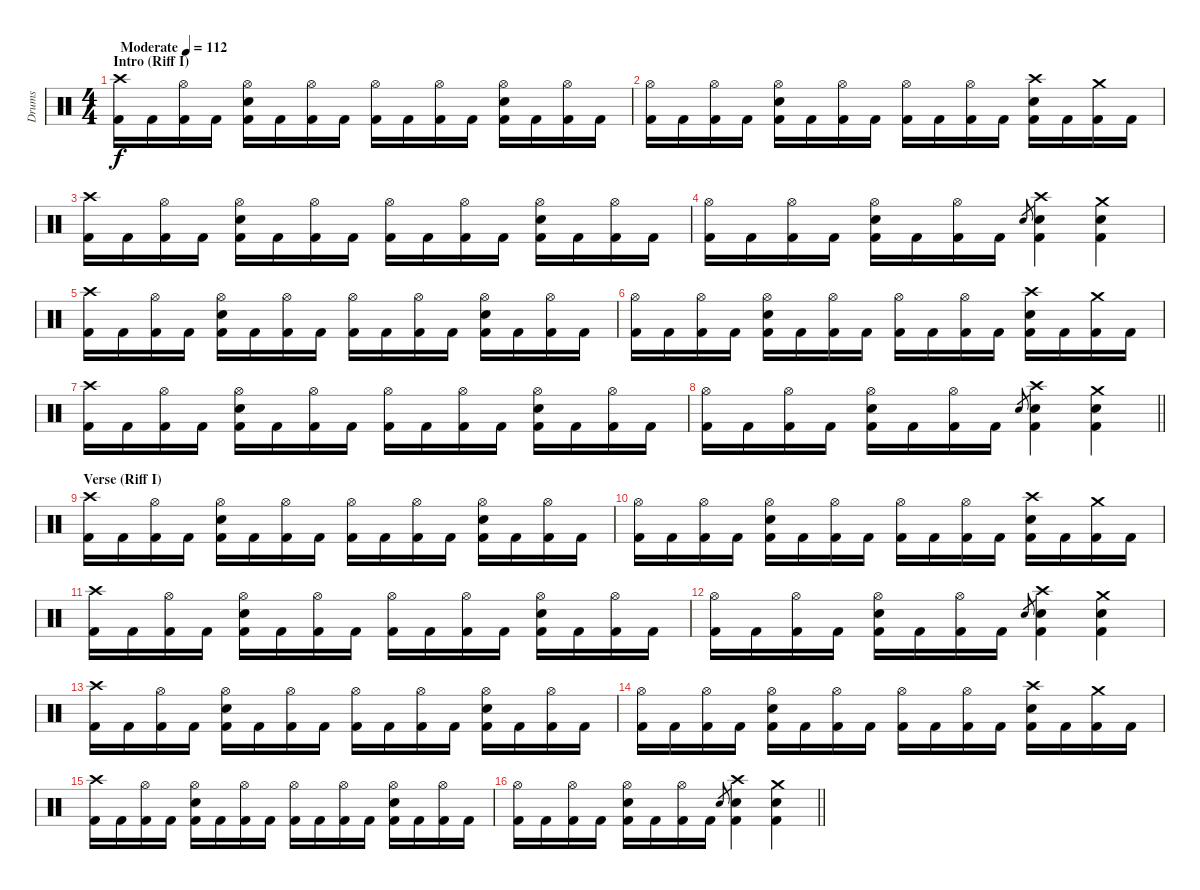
\track ("Drums" "Drums") {instrument percussion}
\staff {score}
\articulation defaults
\ts (4 4)
\section ("" "Intro (Riff I)")
\tempo (112 "Moderate")
\clef neutral
\ks c
("Crash high (hit)" "Kick (hit) 2").16{dy f} "Kick (hit) 2".16 ("Hi-Hat (open)" "Kick (hit) 2").16 "Kick (hit) 2".16 ("Hi-Hat (open)" "Electric Snare (hit)" "Kick (hit) 2").16 "Kick (hit) 2".16 ("Hi-Hat (open)" "Kick (hit) 2").16 "Kick (hit) 2".16 ("Hi-Hat (open)" "Kick (hit) 2").16 "Kick (hit) 2".16 ("Hi-Hat (open)" "Kick (hit) 2").16 "Kick (hit) 2".16 ("Hi-Hat (open)" "Electric Snare (hit)" "Kick (hit) 2").16 "Kick (hit) 2".16 ("Hi-Hat (open)" "Kick (hit) 2").16 "Kick (hit) 2".16 |
("Hi-Hat (open)" "Kick (hit) 2").16 "Kick (hit) 2".16 ("Hi-Hat (open)" "Kick (hit) 2").16 "Kick (hit) 2".16 ("Hi-Hat (open)" "Electric Snare (hit)" "Kick (hit) 2").16 "Kick (hit) 2".16 ("Hi-Hat (open)" "Kick (hit) 2").16 "Kick (hit) 2".16 ("Hi-Hat (open)" "Kick (hit) 2").16 "Kick (hit) 2".16 ("Hi-Hat (open)" "Kick (hit) 2").16 "Kick (hit) 2".16 ("Crash high (hit)" "Electric Snare (hit)" "Kick (hit) 2").16 "Kick (hit) 2".16 ("Crash medium (hit)" "Kick (hit) 2").16 "Kick (hit) 2".16 |
("Crash high (hit)" "Kick (hit) 2").16 "Kick (hit) 2".16 ("Hi-Hat (open)" "Kick (hit) 2").16 "Kick (hit) 2".16 ("Hi-Hat (open)" "Electric Snare (hit)" "Kick (hit) 2").16 "Kick (hit) 2".16 ("Hi-Hat (open)" "Kick (hit) 2").16 "Kick (hit) 2".16 ("Hi-Hat (open)" "Kick (hit) 2").16 "Kick (hit) 2".16 ("Hi-Hat (open)" "Kick (hit) 2").16 "Kick (hit) 2".16 ("Hi-Hat (open)" "Electric Snare (hit)" "Kick (hit) 2").16 "Kick (hit) 2".16 ("Hi-Hat (open)" "Kick (hit) 2").16 "Kick (hit) 2".16 |
("Hi-Hat (open)" "Kick (hit) 2").16 "Kick (hit) 2".16 ("Hi-Hat (open)" "Kick (hit) 2").16 "Kick (hit) 2".16 ("Hi-Hat (open)" "Electric Snare (hit)" "Kick (hit) 2").16 "Kick (hit) 2".16 ("Hi-Hat (open)" "Kick (hit) 2").16 "Kick (hit) 2".16 "Electric Snare (hit)".8{gr} ("Crash high (hit)" "Electric Snare (hit)" "Kick (hit) 2").4 ("Crash medium (hit)" "Electric Snare (hit)" "Kick (hit) 2").4 |
("Crash high (hit)" "Kick (hit) 2").16 "Kick (hit) 2".16 ("Hi-Hat (open)" "Kick (hit) 2").16 "Kick (hit) 2".16 ("Hi-Hat (open)" "Electric Snare (hit)" "Kick (hit) 2").16 "Kick (hit) 2".16 ("Hi-Hat (open)" "Kick (hit) 2").16 "Kick (hit) 2".16 ("Hi-Hat (open)" "Kick (hit) 2").16 "Kick (hit) 2".16 ("Hi-Hat (open)" "Kick (hit) 2").16 "Kick (hit) 2".16 ("Hi-Hat (open)" "Electric Snare (hit)" "Kick (hit) 2").16 "Kick (hit) 2".16 ("Hi-Hat (open)" "Kick (hit) 2").16 "Kick (hit) 2".16 |
("Hi-Hat (open)" "Kick (hit) 2").16 "Kick (hit) 2".16 ("Hi-Hat (open)" "Kick (hit) 2").16 "Kick (hit) 2".16 ("Hi-Hat (open)" "Electric Snare (hit)" "Kick (hit) 2").16 "Kick (hit) 2".16 ("Hi-Hat (open)" "Kick (hit) 2").16 "Kick (hit) 2".16 ("Hi-Hat (open)" "Kick (hit) 2").16 "Kick (hit) 2".16 ("Hi-Hat (open)" "Kick (hit) 2").16 "Kick (hit) 2".16 ("Crash high (hit)" "Electric Snare (hit)" "Kick (hit) 2").16 "Kick (hit) 2".16 ("Crash medium (hit)" "Kick (hit) 2").16 "Kick (hit) 2".16 |
("Crash high (hit)" "Kick (hit) 2").16 "Kick (hit) 2".16 ("Hi-Hat (open)" "Kick (hit) 2").16 "Kick (hit) 2".16 ("Hi-Hat (open)" "Electric Snare (hit)" "Kick (hit) 2").16 "Kick (hit) 2".16 ("Hi-Hat (open)" "Kick (hit) 2").16 "Kick (hit) 2".16 ("Hi-Hat (open)" "Kick (hit) 2").16 "Kick (hit) 2".16 ("Hi-Hat (open)" "Kick (hit) 2").16 "Kick (hit) 2".16 ("Hi-Hat (open)" "Electric Snare (hit)" "Kick (hit) 2").16 "Kick (hit) 2".16 ("Hi-Hat (open)" "Kick (hit) 2").16 "Kick (hit) 2".16 |
\barLineRight lightlight
("Hi-Hat (open)" "Kick (hit) 2").16 "Kick (hit) 2".16 ("Hi-Hat (open)" "Kick (hit) 2").16 "Kick (hit) 2".16 ("Hi-Hat (open)" "Electric Snare (hit)" "Kick (hit) 2").16 "Kick (hit) 2".16 ("Hi-Hat (open)" "Kick (hit) 2").16 "Kick (hit) 2".16 "Electric Snare (hit)".8{gr} ("Crash high (hit)" "Electric Snare (hit)" "Kick (hit) 2").4 ("Crash medium (hit)" "Electric Snare (hit)" "Kick (hit) 2").4 |
\section ("" "Verse (Riff I)")
("Crash high (hit)" "Kick (hit) 2").16 "Kick (hit) 2".16 ("Hi-Hat (open)" "Kick (hit) 2").16 "Kick (hit) 2".16 ("Hi-Hat (open)" "Electric Snare (hit)" "Kick (hit) 2").16 "Kick (hit) 2".16 ("Hi-Hat (open)" "Kick (hit) 2").16 "Kick (hit) 2".16 ("Hi-Hat (open)" "Kick (hit) 2").16 "Kick (hit) 2".16 ("Hi-Hat (open)" "Kick (hit) 2").16 "Kick (hit) 2".16 ("Hi-Hat (open)" "Electric Snare (hit)" "Kick (hit) 2").16 "Kick (hit) 2".16 ("Hi-Hat (open)" "Kick (hit) 2").16 "Kick (hit) 2".16 |
("Hi-Hat (open)" "Kick (hit) 2").16 "Kick (hit) 2".16 ("Hi-Hat (open)" "Kick (hit) 2").16 "Kick (hit) 2".16 ("Hi-Hat (open)" "Electric Snare (hit)" "Kick (hit) 2").16 "Kick (hit) 2".16 ("Hi-Hat (open)" "Kick (hit) 2").16 "Kick (hit) 2".16 ("Hi-Hat (open)" "Kick (hit) 2").16 "Kick (hit) 2".16 ("Hi-Hat (open)" "Kick (hit) 2").16 "Kick (hit) 2".16 ("Crash high (hit)" "Electric Snare (hit)" "Kick (hit) 2").16 "Kick (hit) 2".16 ("Crash medium (hit)" "Kick (hit) 2").16 "Kick (hit) 2".16 |
("Crash high (hit)" "Kick (hit) 2").16 "Kick (hit) 2".16 ("Hi-Hat (open)" "Kick (hit) 2").16 "Kick (hit) 2".16 ("Hi-Hat (open)" "Electric Snare (hit)" "Kick (hit) 2").16 "Kick (hit) 2".16 ("Hi-Hat (open)" "Kick (hit) 2").16 "Kick (hit) 2".16 ("Hi-Hat (open)" "Kick (hit) 2").16 "Kick (hit) 2".16 ("Hi-Hat (open)" "Kick (hit) 2").16 "Kick (hit) 2".16 ("Hi-Hat (open)" "Electric Snare (hit)" "Kick (hit) 2").16 "Kick (hit) 2".16 ("Hi-Hat (open)" "Kick (hit) 2").16 "Kick (hit) 2".16 |
("Hi-Hat (open)" "Kick (hit) 2").16 "Kick (hit) 2".16 ("Hi-Hat (open)" "Kick (hit) 2").16 "Kick (hit) 2".16 ("Hi-Hat (open)" "Electric Snare (hit)" "Kick (hit) 2").16 "Kick (hit) 2".16 ("Hi-Hat (open)" "Kick (hit) 2").16 "Kick (hit) 2".16 "Electric Snare (hit)".8{gr} ("Crash high (hit)" "Electric Snare (hit)" "Kick (hit) 2").4 ("Crash medium (hit)" "Electric Snare (hit)" "Kick (hit) 2").4 |
("Crash high (hit)" "Kick (hit) 2").16 "Kick (hit) 2".16 ("Hi-Hat (open)" "Kick (hit) 2").16 "Kick (hit) 2".16 ("Hi-Hat (open)" "Electric Snare (hit)" "Kick (hit) 2").16 "Kick (hit) 2".16 ("Hi-Hat (open)" "Kick (hit) 2").16 "Kick (hit) 2".16 ("Hi-Hat (open)" "Kick (hit) 2").16 "Kick (hit) 2".16 ("Hi-Hat (open)" "Kick (hit) 2").16 "Kick (hit) 2".16 ("Hi-Hat (open)" "Electric Snare (hit)" "Kick (hit) 2").16 "Kick (hit) 2".16 ("Hi-Hat (open)" "Kick (hit) 2").16 "Kick (hit) 2".16 |
("Hi-Hat (open)" "Kick (hit) 2").16 "Kick (hit) 2".16 ("Hi-Hat (open)" "Kick (hit) 2").16 "Kick (hit) 2".16 ("Hi-Hat (open)" "Electric Snare (hit)" "Kick (hit) 2").16 "Kick (hit) 2".16 ("Hi-Hat (open)" "Kick (hit) 2").16 "Kick (hit) 2".16 ("Hi-Hat (open)" "Kick (hit) 2").16 "Kick (hit) 2".16 ("Hi-Hat (open)" "Kick (hit) 2").16 "Kick (hit) 2".16 ("Crash high (hit)" "Electric Snare (hit)" "Kick (hit) 2").16 "Kick (hit) 2".16 ("Crash medium (hit)" "Kick (hit) 2").16 "Kick (hit) 2".16 |
("Crash high (hit)" "Kick (hit) 2").16 "Kick (hit) 2".16 ("Hi-Hat (open)" "Kick (hit) 2").16 "Kick (hit) 2".16 ("Hi-Hat (open)" "Electric Snare (hit)" "Kick (hit) 2").16 "Kick (hit) 2".16 ("Hi-Hat (open)" "Kick (hit) 2").16 "Kick (hit) 2".16 ("Hi-Hat (open)" "Kick (hit) 2").16 "Kick (hit) 2".16 ("Hi-Hat (open)" "Kick (hit) 2").16 "Kick (hit) 2".16 ("Hi-Hat (open)" "Electric Snare (hit)" "Kick (hit) 2").16 "Kick (hit) 2".16 ("Hi-Hat (open)" "Kick (hit) 2").16 "Kick (hit) 2".16 |
\barLineRight lightlight
("Hi-Hat (open)" "Kick (hit) 2").16 "Kick (hit) 2".16 ("Hi-Hat (open)" "Kick (hit) 2").16 "Kick (hit) 2".16 ("Hi-Hat (open)" "Electric Snare (hit)" "Kick (hit) 2").16 "Kick (hit) 2".16 ("Hi-Hat (open)" "Kick (hit) 2").16 "Kick (hit) 2".16 "Electric Snare (hit)".8{gr} ("Crash high (hit)" "Electric Snare (hit)" "Kick (hit) 2").4 ("Crash medium (hit)" "Electric Snare (hit)" "Kick (hit) 2").4
